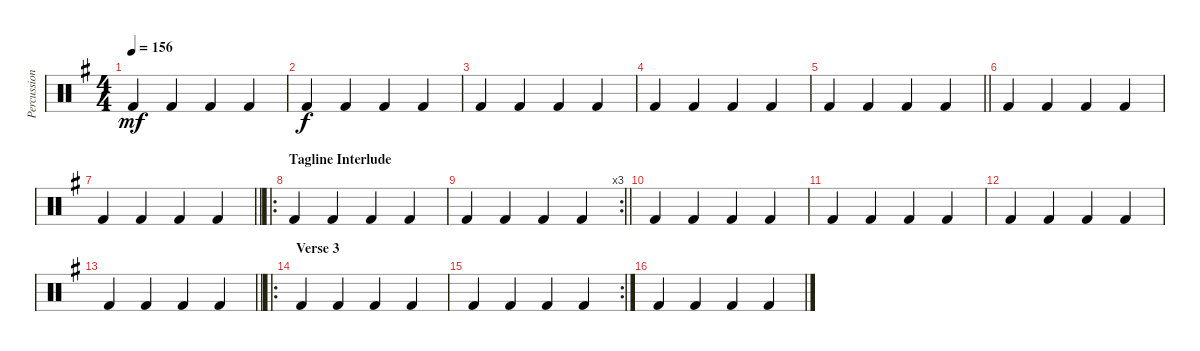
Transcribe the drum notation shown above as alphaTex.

\track ("Percussion" "Percussion") {instrument percussion}
\staff {score}
\articulation defaults
\ts (4 4)
\tempo 156
\clef neutral
\ks g "Kick (hit) 2".4{dy mf} "Kick (hit) 2".4 "Kick (hit) 2".4 "Kick (hit) 2".4
|
"Kick (hit) 2".4{dy f} "Kick (hit) 2".4 "Kick (hit) 2".4 "Kick (hit) 2".4 |
"Kick (hit) 2".4 "Kick (hit) 2".4 "Kick (hit) 2".4 "Kick (hit) 2".4 |
"Kick (hit) 2".4 "Kick (hit) 2".4 "Kick (hit) 2".4 "Kick (hit) 2".4 |
\barLineRight lightlight "Kick (hit) 2".4 "Kick (hit) 2".4 "Kick (hit) 2".4 "Kick (hit) 2".4
|
"Kick (hit) 2".4 "Kick (hit) 2".4 "Kick (hit) 2".4 "Kick (hit) 2".4 |
\barLineRight lightlight "Kick (hit) 2".4 "Kick (hit) 2".4 "Kick (hit) 2".4 "Kick (hit) 2".4
|
\ro
\section ("" "Tagline Interlude")
"Kick (hit) 2".4 "Kick (hit) 2".4 "Kick (hit) 2".4 "Kick (hit) 2".4 |
\rc 3
\barLineRight lightlight "Kick (hit) 2".4 "Kick (hit) 2".4 "Kick (hit) 2".4 "Kick (hit) 2".4
|
"Kick (hit) 2".4 "Kick (hit) 2".4 "Kick (hit) 2".4 "Kick (hit) 2".4 |
"Kick (hit) 2".4 "Kick (hit) 2".4 "Kick (hit) 2".4 "Kick (hit) 2".4 |
"Kick (hit) 2".4 "Kick (hit) 2".4 "Kick (hit) 2".4 "Kick (hit) 2".4 |
\barLineRight lightlight "Kick (hit) 2".4 "Kick (hit) 2".4 "Kick (hit) 2".4 "Kick (hit) 2".4
|
\ro
\section ("" "Verse 3")
"Kick (hit) 2".4 "Kick (hit) 2".4 "Kick (hit) 2".4 "Kick (hit) 2".4 |
\rc 2 "Kick (hit) 2".4 "Kick (hit) 2".4 "Kick (hit) 2".4 "Kick (hit) 2".4
|
"Kick (hit) 2".4 "Kick (hit) 2".4 "Kick (hit) 2".4 "Kick (hit) 2".4
